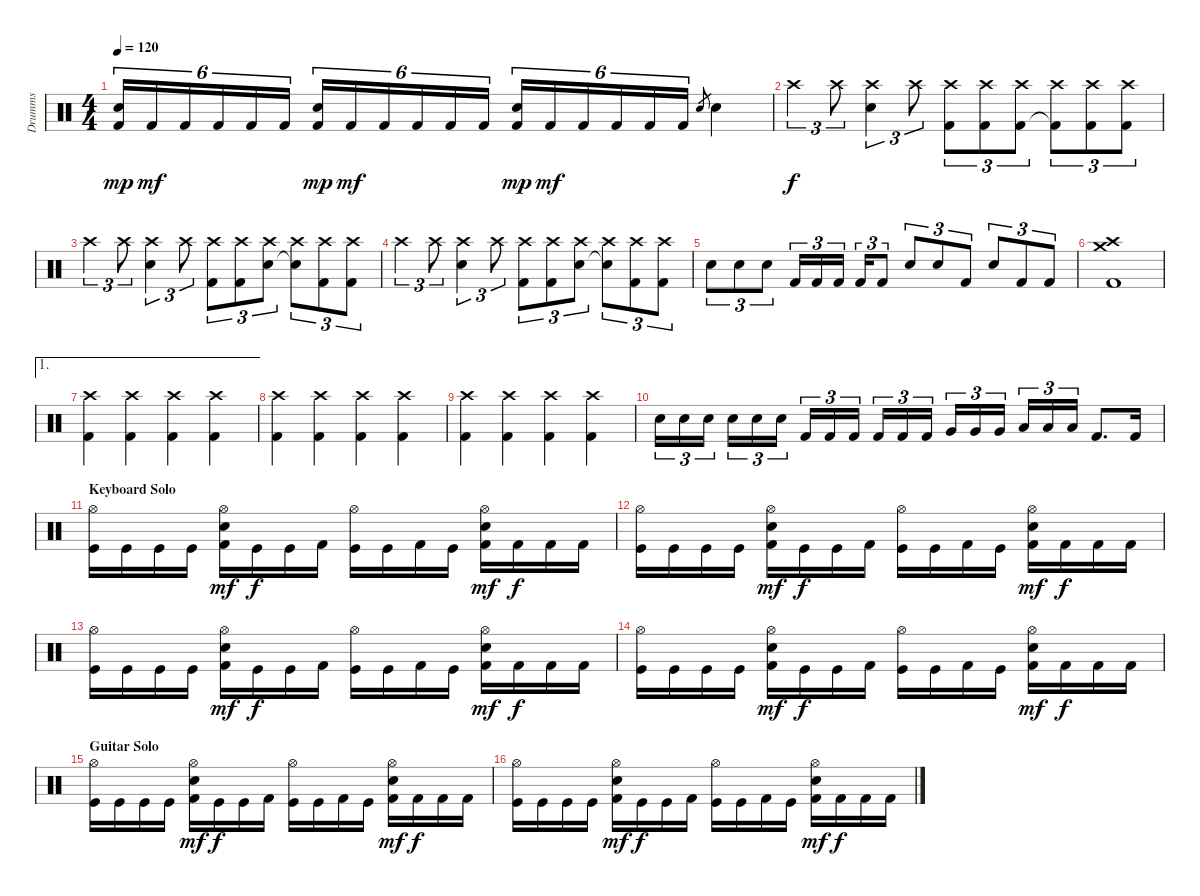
\track ("Drumms" "Drumms") {instrument percussion}
\staff {score}
\articulation defaults
\ts (4 4)
\tempo 120
\clef neutral
\ks c
("Kick (hit) 2" "Electric Snare (hit)").16{tu (6 4) dy mp} "Kick (hit) 2".16{tu (6 4) dy mf} "Kick (hit) 2".16{tu (6 4)} "Kick (hit) 2".16{tu (6 4)} "Kick (hit) 2".16{tu (6 4)} "Kick (hit) 2".16{tu (6 4)} ("Kick (hit) 2" "Electric Snare (hit)").16{tu (6 4) dy mp} "Kick (hit) 2".16{tu (6 4) dy mf} "Kick (hit) 2".16{tu (6 4)} "Kick (hit) 2".16{tu (6 4)} "Kick (hit) 2".16{tu (6 4)} "Kick (hit) 2".16{tu (6 4)} ("Kick (hit) 2" "Electric Snare (hit)").16{tu (6 4) dy mp} "Kick (hit) 2".16{tu (6 4) dy mf} "Kick (hit) 2".16{tu (6 4)} "Kick (hit) 2".16{tu (6 4)} "Kick (hit) 2".16{tu (6 4)} "Kick (hit) 2".16{tu (6 4)} "Electric Snare (hit)".8{gr} "Electric Snare (hit)".4 |
\section ("" "")
"Crash high (hit)".4{tu (3 2) dy f} "Crash high (hit)".8{tu (3 2)} ("Crash high (hit)" "Electric Snare (hit)").4{tu (3 2)} "Crash high (hit)".8{tu (3 2)} ("Crash high (hit)" "Kick (hit) 2").8{tu (3 2)} ("Crash high (hit)" "Kick (hit) 2").8{tu (3 2)} ("Crash high (hit)" "Kick (hit) 2").8{tu (3 2)} ("Crash high (hit)" "Kick (hit) 2"{t}).8{tu (3 2)} ("Crash high (hit)" "Kick (hit) 2").8{tu (3 2)} ("Crash high (hit)" "Kick (hit) 2").8{tu (3 2)} |
"Crash high (hit)".4{tu (3 2)} "Crash high (hit)".8{tu (3 2)} ("Crash high (hit)" "Electric Snare (hit)").4{tu (3 2)} "Crash high (hit)".8{tu (3 2)} ("Crash high (hit)" "Kick (hit) 2").8{tu (3 2)} ("Crash high (hit)" "Kick (hit) 2").8{tu (3 2)} ("Crash high (hit)" "Electric Snare (hit)").8{tu (3 2)} ("Crash high (hit)" "Electric Snare (hit)"{t}).8{tu (3 2)} ("Crash high (hit)" "Kick (hit) 2").8{tu (3 2)} ("Crash high (hit)" "Kick (hit) 2").8{tu (3 2)} |
"Crash high (hit)".4{tu (3 2)} "Crash high (hit)".8{tu (3 2)} ("Crash high (hit)" "Electric Snare (hit)").4{tu (3 2)} "Crash high (hit)".8{tu (3 2)} ("Crash high (hit)" "Kick (hit) 2").8{tu (3 2)} ("Crash high (hit)" "Kick (hit) 2").8{tu (3 2)} ("Crash high (hit)" "Electric Snare (hit)").8{tu (3 2)} ("Crash high (hit)" "Electric Snare (hit)"{t}).8{tu (3 2)} ("Crash high (hit)" "Kick (hit) 2").8{tu (3 2)} ("Crash high (hit)" "Kick (hit) 2").8{tu (3 2)} |
"Electric Snare (hit)".8{tu (3 2)} "Electric Snare (hit)".8{tu (3 2)} "Electric Snare (hit)".8{tu (3 2)} "Kick (hit) 2".16{tu (3 2)} "Kick (hit) 2".16{tu (3 2)} "Kick (hit) 2".16{tu (3 2)} "Kick (hit) 2".16{tu (3 2)} "Kick (hit) 2".8{tu (3 2)} "Electric Snare (hit)".8{tu (3 2)} "Electric Snare (hit)".8{tu (3 2)} "Kick (hit) 2".8{tu (3 2)} "Electric Snare (hit)".8{tu (3 2)} "Kick (hit) 2".8{tu (3 2)} "Kick (hit) 2".8{tu (3 2)} |
("Crash medium (hit)" "Crash high (hit)" "Kick (hit) 2").1 |
\ae 1
\section ("" "")
("Crash high (hit)" "Kick (hit) 2").4 ("Crash high (hit)" "Kick (hit) 2").4 ("Crash high (hit)" "Kick (hit) 2").4 ("Crash high (hit)" "Kick (hit) 2").4 |
("Crash high (hit)" "Kick (hit) 2").4 ("Crash high (hit)" "Kick (hit) 2").4 ("Crash high (hit)" "Kick (hit) 2").4 ("Crash high (hit)" "Kick (hit) 2").4 |
("Crash high (hit)" "Kick (hit) 2").4 ("Crash high (hit)" "Kick (hit) 2").4 ("Crash high (hit)" "Kick (hit) 2").4 ("Crash high (hit)" "Kick (hit) 2").4 |
"Electric Snare (hit)".16{tu (3 2)} "Electric Snare (hit)".16{tu (3 2)} "Electric Snare (hit)".16{tu (3 2)} "Electric Snare (hit)".16{tu (3 2)} "Electric Snare (hit)".16{tu (3 2)} "Electric Snare (hit)".16{tu (3 2)} "Kick (hit) 2".16{tu (3 2)} "Kick (hit) 2".16{tu (3 2)} "Kick (hit) 2".16{tu (3 2)} "Kick (hit) 2".16{tu (3 2)} "Kick (hit) 2".16{tu (3 2)} "Kick (hit) 2".16{tu (3 2)} "Very Low Tom (hit)".16{tu (3 2)} "Very Low Tom (hit)".16{tu (3 2)} "Very Low Tom (hit)".16{tu (3 2)} "Low Tom (hit)".16{tu (3 2)} "Low Tom (hit)".16{tu (3 2)} "Low Tom (hit)".16{tu (3 2)} "Kick (hit) 2".8{d} "Kick (hit) 2".16 |
\section ("" "Keyboard Solo")
("Hi-Hat (open)" "Kick (hit)").16 "Kick (hit)".16 "Kick (hit)".16 "Kick (hit)".16 ("Hi-Hat (open)" "Electric Snare (hit)" "Kick (hit) 2").16{dy mf} "Kick (hit)".16{dy f} "Kick (hit)".16 "Kick (hit) 2".16 ("Hi-Hat (open)" "Kick (hit)").16 "Kick (hit)".16 "Kick (hit) 2".16 "Kick (hit)".16 ("Hi-Hat (open)" "Electric Snare (hit)" "Kick (hit) 2").16{dy mf} "Kick (hit) 2".16{dy f} "Kick (hit) 2".16 "Kick (hit) 2".16 |
("Hi-Hat (open)" "Kick (hit)").16 "Kick (hit)".16 "Kick (hit)".16 "Kick (hit)".16 ("Hi-Hat (open)" "Electric Snare (hit)" "Kick (hit) 2").16{dy mf} "Kick (hit)".16{dy f} "Kick (hit)".16 "Kick (hit) 2".16 ("Hi-Hat (open)" "Kick (hit)").16 "Kick (hit)".16 "Kick (hit) 2".16 "Kick (hit)".16 ("Hi-Hat (open)" "Electric Snare (hit)" "Kick (hit) 2").16{dy mf} "Kick (hit) 2".16{dy f} "Kick (hit) 2".16 "Kick (hit) 2".16 |
("Hi-Hat (open)" "Kick (hit)").16 "Kick (hit)".16 "Kick (hit)".16 "Kick (hit)".16 ("Hi-Hat (open)" "Electric Snare (hit)" "Kick (hit) 2").16{dy mf} "Kick (hit)".16{dy f} "Kick (hit)".16 "Kick (hit) 2".16 ("Hi-Hat (open)" "Kick (hit)").16 "Kick (hit)".16 "Kick (hit) 2".16 "Kick (hit)".16 ("Hi-Hat (open)" "Electric Snare (hit)" "Kick (hit) 2").16{dy mf} "Kick (hit) 2".16{dy f} "Kick (hit) 2".16 "Kick (hit) 2".16 |
("Hi-Hat (open)" "Kick (hit)").16 "Kick (hit)".16 "Kick (hit)".16 "Kick (hit)".16 ("Hi-Hat (open)" "Electric Snare (hit)" "Kick (hit) 2").16{dy mf} "Kick (hit)".16{dy f} "Kick (hit)".16 "Kick (hit) 2".16 ("Hi-Hat (open)" "Kick (hit)").16 "Kick (hit)".16 "Kick (hit) 2".16 "Kick (hit)".16 ("Hi-Hat (open)" "Electric Snare (hit)" "Kick (hit) 2").16{dy mf} "Kick (hit) 2".16{dy f} "Kick (hit) 2".16 "Kick (hit) 2".16 |
\section ("" "Guitar Solo")
("Hi-Hat (open)" "Kick (hit)").16 "Kick (hit)".16 "Kick (hit)".16 "Kick (hit)".16 ("Hi-Hat (open)" "Electric Snare (hit)" "Kick (hit) 2").16{dy mf} "Kick (hit)".16{dy f} "Kick (hit)".16 "Kick (hit) 2".16 ("Hi-Hat (open)" "Kick (hit)").16 "Kick (hit)".16 "Kick (hit) 2".16 "Kick (hit)".16 ("Hi-Hat (open)" "Electric Snare (hit)" "Kick (hit) 2").16{dy mf} "Kick (hit) 2".16{dy f} "Kick (hit) 2".16 "Kick (hit) 2".16 |
("Hi-Hat (open)" "Kick (hit)").16 "Kick (hit)".16 "Kick (hit)".16 "Kick (hit)".16 ("Hi-Hat (open)" "Electric Snare (hit)" "Kick (hit) 2").16{dy mf} "Kick (hit)".16{dy f} "Kick (hit)".16 "Kick (hit) 2".16 ("Hi-Hat (open)" "Kick (hit)").16 "Kick (hit)".16 "Kick (hit) 2".16 "Kick (hit)".16 ("Hi-Hat (open)" "Electric Snare (hit)" "Kick (hit) 2").16{dy mf} "Kick (hit) 2".16{dy f} "Kick (hit) 2".16 "Kick (hit) 2".16
